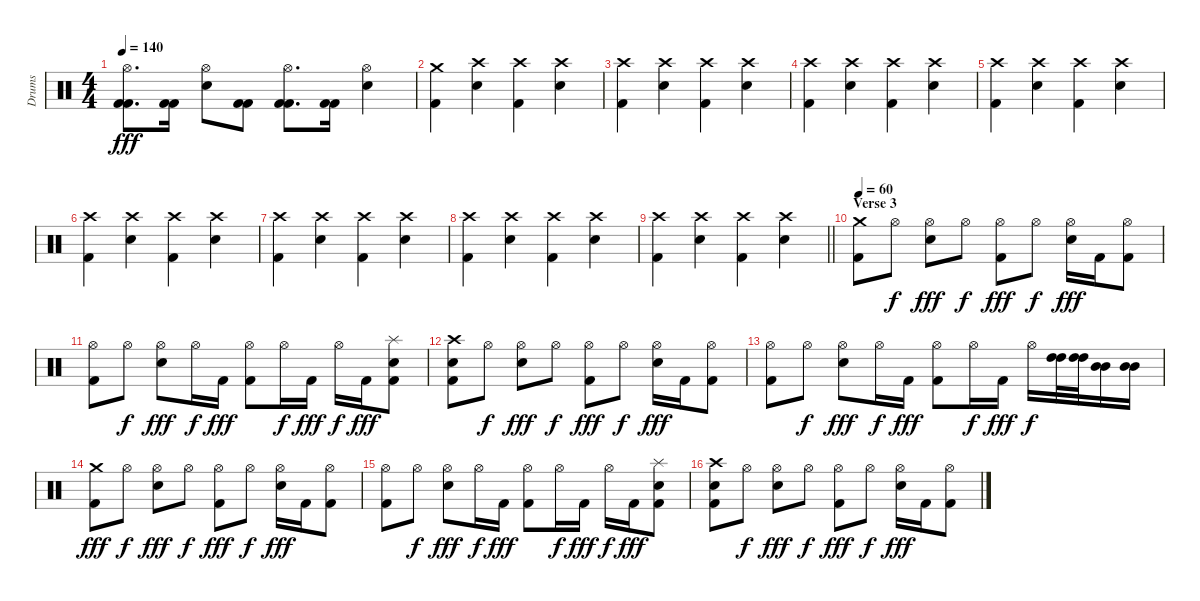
\track ("Drums" "Drums") {instrument percussion}
\staff {score}
\articulation defaults
\ts (4 4)
\tempo 140
\clef neutral
\ks c
("Hi-Hat (open)" "Kick (hit) 2" "Kick (hit) 2").8{d dy fff} ("Kick (hit) 2" "Kick (hit) 2").16 ("Hi-Hat (open)" "Snare (hit) 2").8 ("Kick (hit) 2" "Kick (hit) 2").8 ("Hi-Hat (open)" "Kick (hit) 2" "Kick (hit) 2").8{d} ("Kick (hit) 2" "Kick (hit) 2").16 ("Hi-Hat (open)" "Snare (hit) 2").4 |
("Crash medium (hit)" "Kick (hit) 2").4 ("Crash high (hit)" "Snare (hit) 2").4 ("Crash high (hit)" "Kick (hit) 2").4 ("Crash high (hit)" "Snare (hit) 2").4 |
("Crash high (hit)" "Kick (hit) 2").4 ("Crash high (hit)" "Snare (hit) 2").4 ("Crash high (hit)" "Kick (hit) 2").4 ("Crash high (hit)" "Snare (hit) 2").4 |
("Crash high (hit)" "Kick (hit) 2").4 ("Crash high (hit)" "Snare (hit) 2").4 ("Crash high (hit)" "Kick (hit) 2").4 ("Crash high (hit)" "Snare (hit) 2").4 |
("Crash high (hit)" "Kick (hit) 2").4 ("Crash high (hit)" "Snare (hit) 2").4 ("Crash high (hit)" "Kick (hit) 2").4 ("Crash high (hit)" "Snare (hit) 2").4 |
("Crash high (hit)" "Kick (hit) 2").4 ("Crash high (hit)" "Snare (hit) 2").4 ("Crash high (hit)" "Kick (hit) 2").4 ("Crash high (hit)" "Snare (hit) 2").4 |
("Crash high (hit)" "Kick (hit) 2").4 ("Crash high (hit)" "Snare (hit) 2").4 ("Crash high (hit)" "Kick (hit) 2").4 ("Crash high (hit)" "Snare (hit) 2").4 |
("Crash high (hit)" "Kick (hit) 2").4 ("Crash high (hit)" "Snare (hit) 2").4 ("Crash high (hit)" "Kick (hit) 2").4 ("Crash high (hit)" "Snare (hit) 2").4 |
\barLineRight lightlight
("Crash high (hit)" "Kick (hit) 2").4 ("Crash high (hit)" "Snare (hit) 2").4 ("Crash high (hit)" "Kick (hit) 2").4 ("Crash high (hit)" "Snare (hit) 2").4 |
\section ("" "Verse 3")
\tempo 60
("Crash medium (hit)" "Kick (hit) 2").8 "Hi-Hat (open)".8{dy f} ("Hi-Hat (open)" "Snare (hit) 2").8{dy fff} "Hi-Hat (open)".8{dy f} ("Hi-Hat (open)" "Kick (hit) 2").8{dy fff} "Hi-Hat (open)".8{dy f} ("Hi-Hat (open)" "Snare (hit) 2").16{dy fff} "Kick (hit) 2".16 ("Hi-Hat (open)" "Kick (hit) 2").8 |
("Hi-Hat (open)" "Kick (hit) 2").8 "Hi-Hat (open)".8{dy f} ("Hi-Hat (open)" "Snare (hit) 2").8{dy fff} "Hi-Hat (open)".16{dy f} "Kick (hit) 2".16{dy fff} ("Hi-Hat (open)" "Kick (hit) 2").8 "Hi-Hat (open)".16{dy f} "Kick (hit) 2".16{dy fff} "Hi-Hat (open)".16{dy f} "Kick (hit) 2".16{dy fff} ("Splash (hit)" "Snare (hit) 2" "Kick (hit) 2").8 |
("Crash high (hit)" "Snare (hit) 2" "Kick (hit) 2").8 "Hi-Hat (open)".8{dy f} ("Hi-Hat (open)" "Snare (hit) 2").8{dy fff} "Hi-Hat (open)".8{dy f} ("Hi-Hat (open)" "Kick (hit) 2").8{dy fff} "Hi-Hat (open)".8{dy f} ("Hi-Hat (open)" "Snare (hit) 2").16{dy fff} "Kick (hit) 2".16 ("Hi-Hat (open)" "Kick (hit) 2").8 |
("Hi-Hat (open)" "Kick (hit) 2").8 "Hi-Hat (open)".8{dy f} ("Hi-Hat (open)" "Snare (hit) 2").8{dy fff} "Hi-Hat (open)".16{dy f} "Kick (hit) 2".16{dy fff} ("Hi-Hat (open)" "Kick (hit) 2").8 "Hi-Hat (open)".16{dy f} "Kick (hit) 2".16{dy fff} "Hi-Hat (open)".16{dy f} ("High Tom (hit)" "High Tom (hit)").32 ("High Tom (hit)" "High Tom (hit)").32 ("Mid Tom (hit)" "Mid Tom (hit)").16 ("Mid Tom (hit)" "Mid Tom (hit)").16 |
("Crash medium (hit)" "Kick (hit) 2").8{dy fff} "Hi-Hat (open)".8{dy f} ("Hi-Hat (open)" "Snare (hit) 2").8{dy fff} "Hi-Hat (open)".8{dy f} ("Hi-Hat (open)" "Kick (hit) 2").8{dy fff} "Hi-Hat (open)".8{dy f} ("Hi-Hat (open)" "Snare (hit) 2").16{dy fff} "Kick (hit) 2".16 ("Hi-Hat (open)" "Kick (hit) 2").8 |
("Hi-Hat (open)" "Kick (hit) 2").8 "Hi-Hat (open)".8{dy f} ("Hi-Hat (open)" "Snare (hit) 2").8{dy fff} "Hi-Hat (open)".16{dy f} "Kick (hit) 2".16{dy fff} ("Hi-Hat (open)" "Kick (hit) 2").8 "Hi-Hat (open)".16{dy f} "Kick (hit) 2".16{dy fff} "Hi-Hat (open)".16{dy f} "Kick (hit) 2".16{dy fff} ("Splash (hit)" "Snare (hit) 2" "Kick (hit) 2").8 |
("Crash high (hit)" "Snare (hit) 2" "Kick (hit) 2").8 "Hi-Hat (open)".8{dy f} ("Hi-Hat (open)" "Snare (hit) 2").8{dy fff} "Hi-Hat (open)".8{dy f} ("Hi-Hat (open)" "Kick (hit) 2").8{dy fff} "Hi-Hat (open)".8{dy f} ("Hi-Hat (open)" "Snare (hit) 2").16{dy fff} "Kick (hit) 2".16 ("Hi-Hat (open)" "Kick (hit) 2").8
